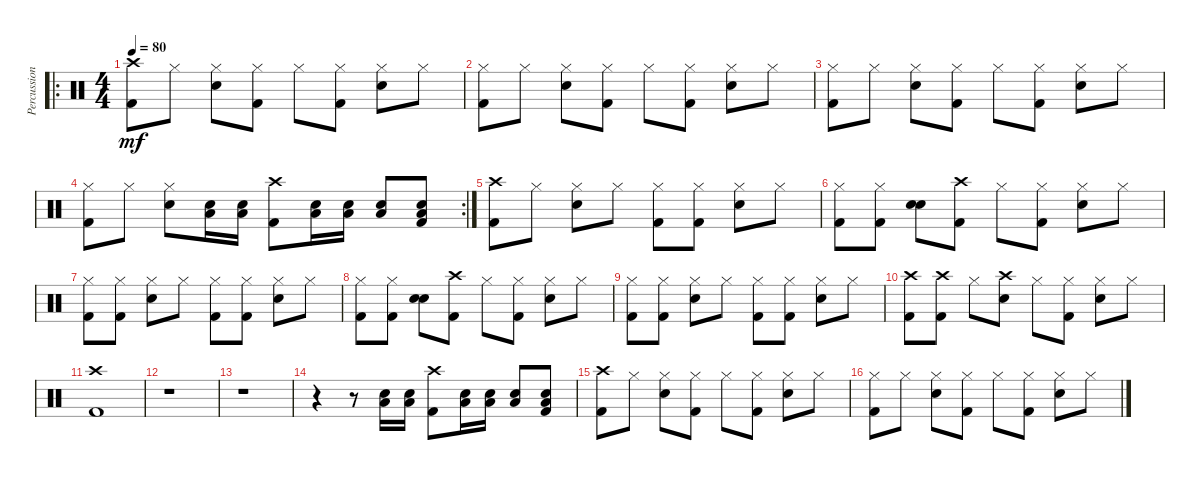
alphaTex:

\track ("Percussions" "Percussion") {instrument percussion}
\staff {score}
\articulation defaults
\ro
\ts (4 4)
\tempo 80
\clef neutral
\ks c
("Crash high (hit)" "Kick (hit) 2").8{dy mf} "Hi-Hat (closed)".8 ("Hi-Hat (closed)" "Electric Snare (hit)").8 ("Hi-Hat (closed)" "Kick (hit) 2").8 "Hi-Hat (closed)".8 ("Hi-Hat (closed)" "Kick (hit) 2").8 ("Hi-Hat (closed)" "Electric Snare (hit)").8 "Hi-Hat (closed)".8 |
("Hi-Hat (closed)" "Kick (hit) 2").8 "Hi-Hat (closed)".8 ("Hi-Hat (closed)" "Electric Snare (hit)").8 ("Hi-Hat (closed)" "Kick (hit) 2").8 "Hi-Hat (closed)".8 ("Hi-Hat (closed)" "Kick (hit) 2").8 ("Hi-Hat (closed)" "Electric Snare (hit)").8 "Hi-Hat (closed)".8 |
("Hi-Hat (closed)" "Kick (hit) 2").8 "Hi-Hat (closed)".8 ("Hi-Hat (closed)" "Electric Snare (hit)").8 ("Hi-Hat (closed)" "Kick (hit) 2").8 "Hi-Hat (closed)".8 ("Hi-Hat (closed)" "Kick (hit) 2").8 ("Hi-Hat (closed)" "Electric Snare (hit)").8 "Hi-Hat (closed)".8 |
\rc 2
("Hi-Hat (closed)" "Kick (hit) 2").8 "Hi-Hat (closed)".8 ("Hi-Hat (closed)" "Electric Snare (hit)").8 ("Low Tom (hit)" "Snare (hit) 2").16 ("Low Tom (hit)" "Snare (hit) 2").16 ("Crash high (hit)" "Kick (hit) 2").8 ("Low Tom (hit)" "Snare (hit) 2").16 ("Low Tom (hit)" "Snare (hit) 2").16 ("Low Tom (hit)" "Snare (hit) 2").8 ("Low Tom (hit)" "Snare (hit) 2" "Kick (hit) 2").8 |
("Crash high (hit)" "Kick (hit) 2").8 "Hi-Hat (closed)".8 ("Hi-Hat (closed)" "Electric Snare (hit)").8 "Hi-Hat (closed)".8 ("Hi-Hat (closed)" "Kick (hit) 2").8 ("Hi-Hat (closed)" "Kick (hit) 2").8 ("Hi-Hat (closed)" "Electric Snare (hit)").8 "Hi-Hat (closed)".8 |
("Hi-Hat (closed)" "Kick (hit) 2").8 ("Hi-Hat (closed)" "Kick (hit) 2").8 ("Snare (hit) 2" "Electric Snare (hit)").8 ("Crash high (hit)" "Kick (hit) 2").8 "Hi-Hat (closed)".8 ("Hi-Hat (closed)" "Kick (hit) 2").8 ("Hi-Hat (closed)" "Electric Snare (hit)").8 "Hi-Hat (closed)".8 |
("Hi-Hat (closed)" "Kick (hit) 2").8 ("Hi-Hat (closed)" "Kick (hit) 2").8 ("Hi-Hat (closed)" "Electric Snare (hit)").8 "Hi-Hat (closed)".8 ("Hi-Hat (closed)" "Kick (hit) 2").8 ("Hi-Hat (closed)" "Kick (hit) 2").8 ("Hi-Hat (closed)" "Electric Snare (hit)").8 "Hi-Hat (closed)".8 |
("Hi-Hat (closed)" "Kick (hit) 2").8 ("Hi-Hat (closed)" "Kick (hit) 2").8 ("Snare (hit) 2" "Electric Snare (hit)").8 ("Crash high (hit)" "Kick (hit) 2").8 "Hi-Hat (closed)".8 ("Hi-Hat (closed)" "Kick (hit) 2").8 ("Hi-Hat (closed)" "Electric Snare (hit)").8 "Hi-Hat (closed)".8 |
("Hi-Hat (closed)" "Kick (hit) 2").8 ("Hi-Hat (closed)" "Kick (hit) 2").8 ("Hi-Hat (closed)" "Electric Snare (hit)").8 "Hi-Hat (closed)".8 ("Hi-Hat (closed)" "Kick (hit) 2").8 ("Hi-Hat (closed)" "Kick (hit) 2").8 ("Hi-Hat (closed)" "Electric Snare (hit)").8 "Hi-Hat (closed)".8 |
("Crash high (hit)" "Kick (hit) 2").8 ("Crash high (hit)" "Kick (hit) 2").8 "Hi-Hat (closed)".8 ("Crash high (hit)" "Electric Snare (hit)").8 "Hi-Hat (closed)".8 ("Hi-Hat (closed)" "Kick (hit) 2").8 ("Hi-Hat (closed)" "Electric Snare (hit)").8 "Hi-Hat (closed)".8 |
("Crash high (hit)" "Kick (hit) 2").1 |
r.1 |
r.1 |
r.4 r.8 ("Low Tom (hit)" "Snare (hit) 2").16 ("Low Tom (hit)" "Snare (hit) 2").16 ("Crash high (hit)" "Kick (hit) 2").8 ("Low Tom (hit)" "Snare (hit) 2").16 ("Low Tom (hit)" "Snare (hit) 2").16 ("Low Tom (hit)" "Snare (hit) 2").8 ("Low Tom (hit)" "Snare (hit) 2" "Kick (hit) 2").8 |
("Crash high (hit)" "Kick (hit) 2").8 "Hi-Hat (closed)".8 ("Hi-Hat (closed)" "Electric Snare (hit)").8 ("Hi-Hat (closed)" "Kick (hit) 2").8 "Hi-Hat (closed)".8 ("Hi-Hat (closed)" "Kick (hit) 2").8 ("Hi-Hat (closed)" "Electric Snare (hit)").8 "Hi-Hat (closed)".8 |
("Hi-Hat (closed)" "Kick (hit) 2").8 "Hi-Hat (closed)".8 ("Hi-Hat (closed)" "Electric Snare (hit)").8 ("Hi-Hat (closed)" "Kick (hit) 2").8 "Hi-Hat (closed)".8 ("Hi-Hat (closed)" "Kick (hit) 2").8 ("Hi-Hat (closed)" "Electric Snare (hit)").8 "Hi-Hat (closed)".8
